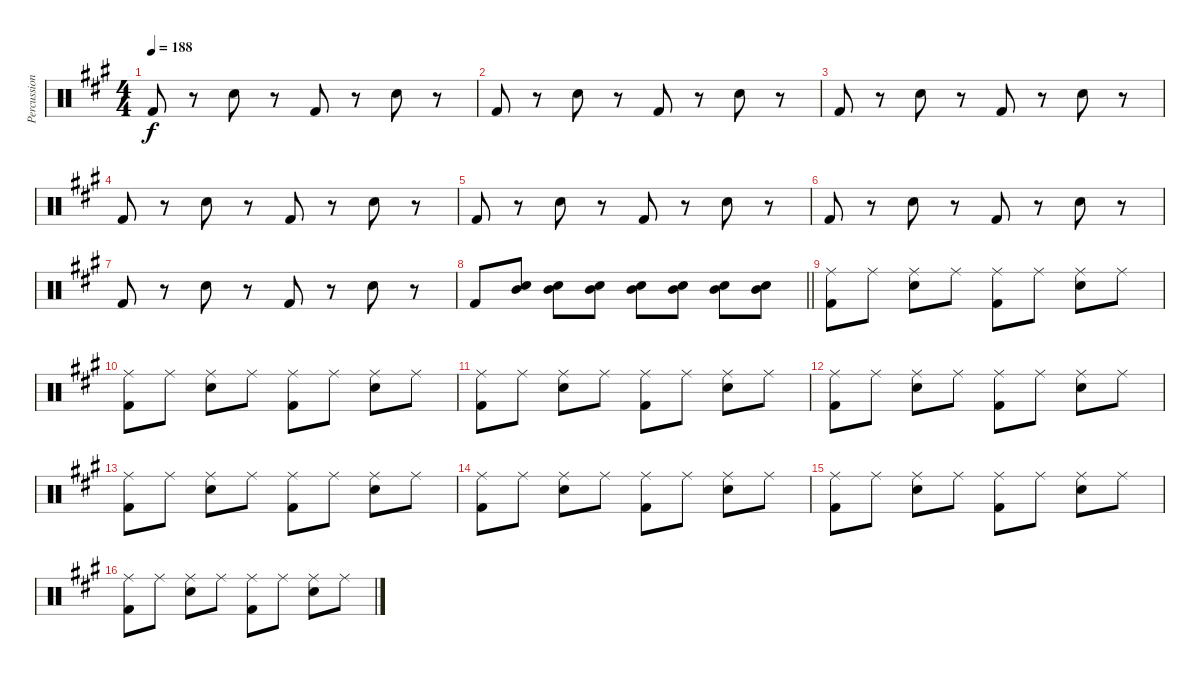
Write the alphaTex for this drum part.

\track ("Percussion" "Percussion") {instrument percussion}
\staff {score}
\articulation defaults
\ts (4 4)
\tempo 188
\clef neutral
\ks a "Kick (hit) 2".8{dy f}
r.8 "Snare (hit) 2".8 r.8 "Kick (hit) 2".8 r.8 "Snare (hit) 2".8 r.8 |
"Kick (hit) 2".8 r.8 "Snare (hit) 2".8 r.8 "Kick (hit) 2".8 r.8 "Snare (hit) 2".8 r.8 |
"Kick (hit) 2".8 r.8 "Snare (hit) 2".8 r.8 "Kick (hit) 2".8 r.8 "Snare (hit) 2".8 r.8 |
"Kick (hit) 2".8 r.8 "Snare (hit) 2".8 r.8 "Kick (hit) 2".8 r.8 "Snare (hit) 2".8 r.8 |
"Kick (hit) 2".8 r.8 "Snare (hit) 2".8 r.8 "Kick (hit) 2".8 r.8 "Snare (hit) 2".8 r.8 |
"Kick (hit) 2".8 r.8 "Snare (hit) 2".8 r.8 "Kick (hit) 2".8 r.8 "Snare (hit) 2".8 r.8 |
"Kick (hit) 2".8 r.8 "Snare (hit) 2".8 r.8 "Kick (hit) 2".8 r.8 "Snare (hit) 2".8 r.8 |
\barLineRight lightlight "Kick (hit) 2".8
("Mid Tom (hit)" "Snare (hit) 2").8 ("Mid Tom (hit)" "Snare (hit) 2").8 ("Mid Tom (hit)" "Snare (hit) 2").8 ("Mid Tom (hit)" "Snare (hit) 2").8 ("Mid Tom (hit)" "Snare (hit) 2").8 ("Mid Tom (hit)" "Snare (hit) 2").8 ("Mid Tom (hit)" "Snare (hit) 2").8 |
("Ride (middle)" "Kick (hit) 2").8 "Ride (middle)".8 ("Ride (middle)" "Snare (hit) 2").8 "Ride (middle)".8 ("Ride (middle)" "Kick (hit) 2").8 "Ride (middle)".8 ("Ride (middle)" "Snare (hit) 2").8 "Ride (middle)".8 |
("Ride (middle)" "Kick (hit) 2").8 "Ride (middle)".8 ("Ride (middle)" "Snare (hit) 2").8 "Ride (middle)".8 ("Ride (middle)" "Kick (hit) 2").8 "Ride (middle)".8 ("Ride (middle)" "Snare (hit) 2").8 "Ride (middle)".8 |
("Ride (middle)" "Kick (hit) 2").8 "Ride (middle)".8 ("Ride (middle)" "Snare (hit) 2").8 "Ride (middle)".8 ("Ride (middle)" "Kick (hit) 2").8 "Ride (middle)".8 ("Ride (middle)" "Snare (hit) 2").8 "Ride (middle)".8 |
("Ride (middle)" "Kick (hit) 2").8 "Ride (middle)".8 ("Ride (middle)" "Snare (hit) 2").8 "Ride (middle)".8 ("Ride (middle)" "Kick (hit) 2").8 "Ride (middle)".8 ("Ride (middle)" "Snare (hit) 2").8 "Ride (middle)".8 |
("Ride (middle)" "Kick (hit) 2").8 "Ride (middle)".8 ("Ride (middle)" "Snare (hit) 2").8 "Ride (middle)".8 ("Ride (middle)" "Kick (hit) 2").8 "Ride (middle)".8 ("Ride (middle)" "Snare (hit) 2").8 "Ride (middle)".8 |
("Ride (middle)" "Kick (hit) 2").8 "Ride (middle)".8 ("Ride (middle)" "Snare (hit) 2").8 "Ride (middle)".8 ("Ride (middle)" "Kick (hit) 2").8 "Ride (middle)".8 ("Ride (middle)" "Snare (hit) 2").8 "Ride (middle)".8 |
("Ride (middle)" "Kick (hit) 2").8 "Ride (middle)".8 ("Ride (middle)" "Snare (hit) 2").8 "Ride (middle)".8 ("Ride (middle)" "Kick (hit) 2").8 "Ride (middle)".8 ("Ride (middle)" "Snare (hit) 2").8 "Ride (middle)".8 |
("Ride (middle)" "Kick (hit) 2").8 "Ride (middle)".8 ("Ride (middle)" "Snare (hit) 2").8 "Ride (middle)".8 ("Ride (middle)" "Kick (hit) 2").8 "Ride (middle)".8 ("Ride (middle)" "Snare (hit) 2").8 "Ride (middle)".8
